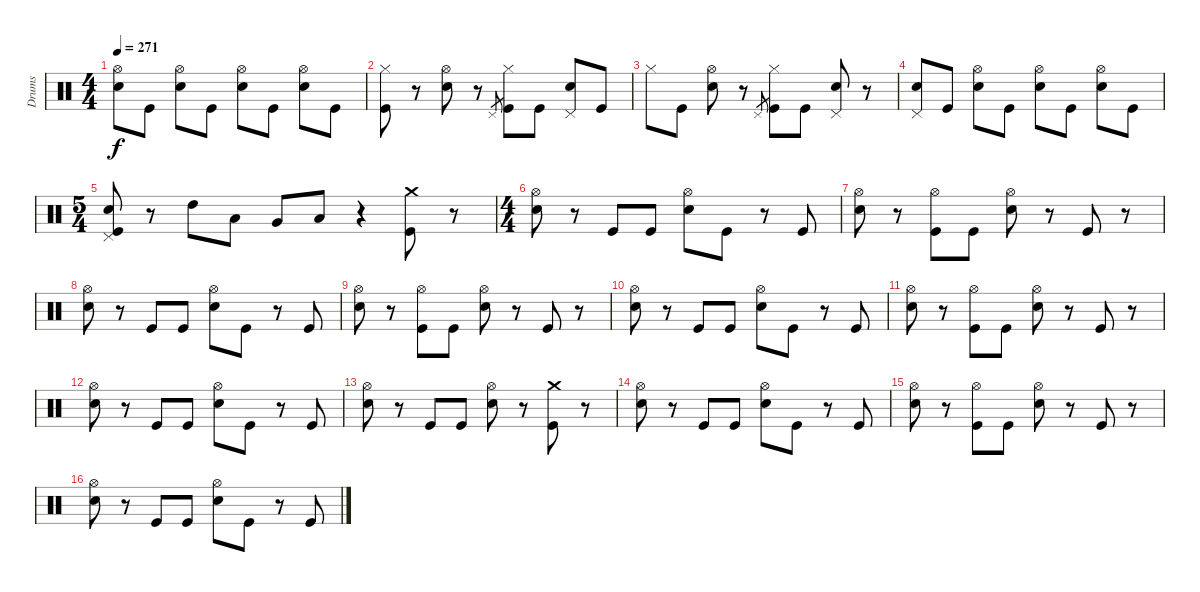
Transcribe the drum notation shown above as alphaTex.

\track ("Drums" "Drums") {instrument percussion}
\staff {score}
\articulation defaults
\ts (4 4)
\tempo 271
\clef neutral
\ks c
("Hi-Hat (open)" "Electric Snare (hit)").8{dy f} "Kick (hit)".8 ("Hi-Hat (open)" "Electric Snare (hit)").8 "Kick (hit)".8 ("Hi-Hat (open)" "Electric Snare (hit)").8 "Kick (hit)".8 ("Hi-Hat (open)" "Electric Snare (hit)").8 "Kick (hit)".8 |
("Hi-Hat (closed)" "Kick (hit)").8 r.8 ("Hi-Hat (open)" "Electric Snare (hit)").8 r.8 "Pedal Hi-Hat (hit)".8{gr} ("Hi-Hat (closed)" "Kick (hit)").8 "Kick (hit)".8 ("Pedal Hi-Hat (hit)" "Electric Snare (hit)").8 "Kick (hit)".8 |
"Hi-Hat (closed)".8 "Kick (hit)".8 ("Hi-Hat (open)" "Electric Snare (hit)").8 r.8 "Pedal Hi-Hat (hit)".8{gr} ("Hi-Hat (closed)" "Kick (hit)").8 "Kick (hit)".8 ("Pedal Hi-Hat (hit)" "Electric Snare (hit)").8 r.8 |
("Pedal Hi-Hat (hit)" "Electric Snare (hit)").8 "Kick (hit)".8 ("Hi-Hat (open)" "Electric Snare (hit)").8 "Kick (hit)".8 ("Hi-Hat (open)" "Electric Snare (hit)").8 "Kick (hit)".8 ("Hi-Hat (open)" "Electric Snare (hit)").8 "Kick (hit)".8 |
\ts (5 4)
("Pedal Hi-Hat (hit)" "Electric Snare (hit)" "Kick (hit)").8 r.8 "High Tom (hit)".8 "Low Tom (hit)".8 "Very Low Tom (hit)".8 "Low Floor Tom (hit)".8 r.4 ("Crash medium (hit)" "Kick (hit)").8 r.8 |
\ts (4 4)
("Hi-Hat (open)" "Electric Snare (hit)").8 r.8 "Kick (hit)".8 "Kick (hit)".8 ("Hi-Hat (open)" "Electric Snare (hit)").8 "Kick (hit)".8 r.8 "Kick (hit)".8 |
("Hi-Hat (open)" "Electric Snare (hit)").8 r.8 ("Hi-Hat (open)" "Kick (hit)").8 "Kick (hit)".8 ("Hi-Hat (open)" "Electric Snare (hit)").8 r.8 "Kick (hit)".8 r.8 |
("Hi-Hat (open)" "Electric Snare (hit)").8 r.8 "Kick (hit)".8 "Kick (hit)".8 ("Hi-Hat (open)" "Electric Snare (hit)").8 "Kick (hit)".8 r.8 "Kick (hit)".8 |
("Hi-Hat (open)" "Electric Snare (hit)").8 r.8 ("Hi-Hat (open)" "Kick (hit)").8 "Kick (hit)".8 ("Hi-Hat (open)" "Electric Snare (hit)").8 r.8 "Kick (hit)".8 r.8 |
("Hi-Hat (open)" "Electric Snare (hit)").8 r.8 "Kick (hit)".8 "Kick (hit)".8 ("Hi-Hat (open)" "Electric Snare (hit)").8 "Kick (hit)".8 r.8 "Kick (hit)".8 |
("Hi-Hat (open)" "Electric Snare (hit)").8 r.8 ("Hi-Hat (open)" "Kick (hit)").8 "Kick (hit)".8 ("Hi-Hat (open)" "Electric Snare (hit)").8 r.8 "Kick (hit)".8 r.8 |
("Hi-Hat (open)" "Electric Snare (hit)").8 r.8 "Kick (hit)".8 "Kick (hit)".8 ("Hi-Hat (open)" "Electric Snare (hit)").8 "Kick (hit)".8 r.8 "Kick (hit)".8 |
("Hi-Hat (open)" "Electric Snare (hit)").8 r.8 "Kick (hit)".8 "Kick (hit)".8 ("Hi-Hat (open)" "Electric Snare (hit)").8 r.8 ("Crash medium (hit)" "Kick (hit)").8 r.8 |
("Hi-Hat (open)" "Electric Snare (hit)").8 r.8 "Kick (hit)".8 "Kick (hit)".8 ("Hi-Hat (open)" "Electric Snare (hit)").8 "Kick (hit)".8 r.8 "Kick (hit)".8 |
("Hi-Hat (open)" "Electric Snare (hit)").8 r.8 ("Hi-Hat (open)" "Kick (hit)").8 "Kick (hit)".8 ("Hi-Hat (open)" "Electric Snare (hit)").8 r.8 "Kick (hit)".8 r.8 |
("Hi-Hat (open)" "Electric Snare (hit)").8 r.8 "Kick (hit)".8 "Kick (hit)".8 ("Hi-Hat (open)" "Electric Snare (hit)").8 "Kick (hit)".8 r.8 "Kick (hit)".8
